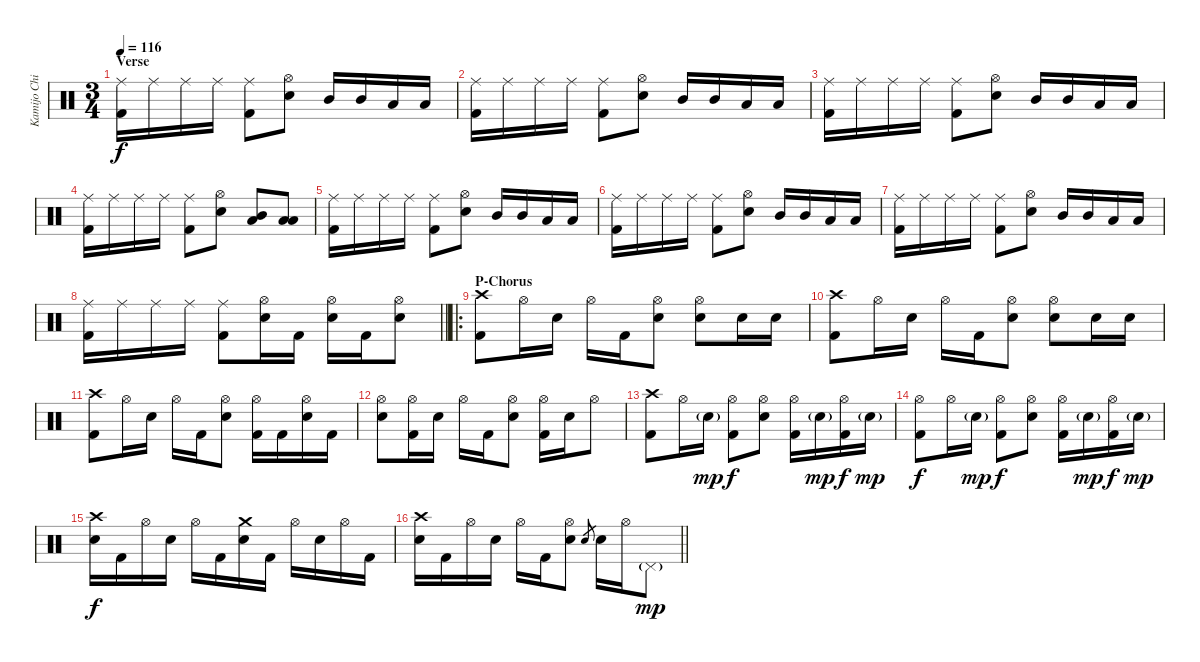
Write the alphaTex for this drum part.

\track ("Kamijo Chihiro" "Kamijo Chi") {instrument percussion}
\staff {score}
\articulation defaults
\ts (3 4)
\section ("" "Verse")
\tempo 116
\clef neutral
\ks c
("Ride (middle)" "Kick (hit) 2").16{dy f} "Ride (middle)".16 "Ride (middle)".16 "Ride (middle)".16 ("Ride (middle)" "Kick (hit) 2").8 ("Hi-Hat (open)" "Snare (hit) 2").8 "Mid Tom (hit)".16 "Mid Tom (hit)".16 "Low Tom (hit)".16 "Low Tom (hit)".16 |
("Ride (middle)" "Kick (hit) 2").16 "Ride (middle)".16 "Ride (middle)".16 "Ride (middle)".16 ("Ride (middle)" "Kick (hit) 2").8 ("Hi-Hat (open)" "Snare (hit) 2").8 "Mid Tom (hit)".16 "Mid Tom (hit)".16 "Low Tom (hit)".16 "Low Tom (hit)".16 |
("Ride (middle)" "Kick (hit) 2").16 "Ride (middle)".16 "Ride (middle)".16 "Ride (middle)".16 ("Ride (middle)" "Kick (hit) 2").8 ("Hi-Hat (open)" "Snare (hit) 2").8 "Mid Tom (hit)".16 "Mid Tom (hit)".16 "Low Tom (hit)".16 "Low Tom (hit)".16 |
("Ride (middle)" "Kick (hit) 2").16 "Ride (middle)".16 "Ride (middle)".16 "Ride (middle)".16 ("Ride (middle)" "Kick (hit) 2").8 ("Hi-Hat (open)" "Snare (hit) 2").8 ("Mid Tom (hit)" "Low Tom (hit)").8 ("Low Tom (hit)" "Low Floor Tom (hit)").8 |
("Ride (middle)" "Kick (hit) 2").16 "Ride (middle)".16 "Ride (middle)".16 "Ride (middle)".16 ("Ride (middle)" "Kick (hit) 2").8 ("Hi-Hat (open)" "Snare (hit) 2").8 "Mid Tom (hit)".16 "Mid Tom (hit)".16 "Low Tom (hit)".16 "Low Tom (hit)".16 |
("Ride (middle)" "Kick (hit) 2").16 "Ride (middle)".16 "Ride (middle)".16 "Ride (middle)".16 ("Ride (middle)" "Kick (hit) 2").8 ("Hi-Hat (open)" "Snare (hit) 2").8 "Mid Tom (hit)".16 "Mid Tom (hit)".16 "Low Tom (hit)".16 "Low Tom (hit)".16 |
("Ride (middle)" "Kick (hit) 2").16 "Ride (middle)".16 "Ride (middle)".16 "Ride (middle)".16 ("Ride (middle)" "Kick (hit) 2").8 ("Hi-Hat (open)" "Snare (hit) 2").8 "Mid Tom (hit)".16 "Mid Tom (hit)".16 "Low Tom (hit)".16 "Low Tom (hit)".16 |
\barLineRight lightlight
("Ride (middle)" "Kick (hit) 2").16 "Ride (middle)".16 "Ride (middle)".16 "Ride (middle)".16 ("Ride (middle)" "Kick (hit) 2").8 ("Hi-Hat (open)" "Snare (hit) 2").16 "Kick (hit) 2".16 ("Hi-Hat (open)" "Snare (hit) 2").16 "Kick (hit) 2".16 ("Hi-Hat (open)" "Snare (hit) 2").8 |
\ro
\section ("" "P-Chorus")
("Crash high (hit)" "Kick (hit) 2").8 "Hi-Hat (open)".16 "Snare (hit) 2".16 "Hi-Hat (open)".16 "Kick (hit) 2".16 ("Hi-Hat (open)" "Snare (hit) 2").8 ("Hi-Hat (open)" "Snare (hit) 2").8 "Snare (hit) 2".16 "Snare (hit) 2".16 |
("Crash high (hit)" "Kick (hit) 2").8 "Hi-Hat (open)".16 "Snare (hit) 2".16 "Hi-Hat (open)".16 "Kick (hit) 2".16 ("Hi-Hat (open)" "Snare (hit) 2").8 ("Hi-Hat (open)" "Snare (hit) 2").8 "Snare (hit) 2".16 "Snare (hit) 2".16 |
("Crash high (hit)" "Kick (hit) 2").8 "Hi-Hat (open)".16 "Snare (hit) 2".16 "Hi-Hat (open)".16 "Kick (hit) 2".16 ("Hi-Hat (open)" "Snare (hit) 2").8 ("Hi-Hat (open)" "Kick (hit) 2").16 "Kick (hit) 2".16 ("Hi-Hat (open)" "Snare (hit) 2").16 "Kick (hit) 2".16 |
("Hi-Hat (open)" "Snare (hit) 2").8 ("Hi-Hat (open)" "Kick (hit) 2").16 "Snare (hit) 2".16 "Hi-Hat (open)".16 "Kick (hit) 2".16 ("Hi-Hat (open)" "Snare (hit) 2").8 ("Hi-Hat (open)" "Kick (hit) 2").16 "Snare (hit) 2".16 "Hi-Hat (open)".8 |
("Crash high (hit)" "Kick (hit) 2").8 "Hi-Hat (open)".16 "Snare (hit) 2"{g}.16{dy mp} ("Hi-Hat (open)" "Kick (hit) 2").8{dy f} ("Hi-Hat (open)" "Snare (hit) 2").8 ("Hi-Hat (open)" "Kick (hit) 2").16 "Snare (hit) 2"{g}.16{dy mp} ("Hi-Hat (open)" "Kick (hit) 2").16{dy f} "Snare (hit) 2"{g}.16{dy mp} |
("Hi-Hat (open)" "Kick (hit) 2").8{dy f} "Hi-Hat (open)".16 "Snare (hit) 2"{g}.16{dy mp} ("Hi-Hat (open)" "Kick (hit) 2").8{dy f} ("Hi-Hat (open)" "Snare (hit) 2").8 ("Hi-Hat (open)" "Kick (hit) 2").16 "Snare (hit) 2"{g}.16{dy mp} ("Hi-Hat (open)" "Kick (hit) 2").16{dy f} "Snare (hit) 2"{g}.16{dy mp} |
("Crash high (hit)" "Snare (hit) 2").16{dy f} "Kick (hit) 2".16 "Hi-Hat (open)".16 "Snare (hit) 2".16 "Hi-Hat (open)".16 "Kick (hit) 2".16 ("Crash medium (hit)" "Snare (hit) 2").16 "Kick (hit) 2".16 "Hi-Hat (open)".16 "Snare (hit) 2".16 "Hi-Hat (open)".16 "Kick (hit) 2".16 |
\barLineRight lightlight
("Crash high (hit)" "Snare (hit) 2").16 "Kick (hit) 2".16 "Hi-Hat (open)".16 "Snare (hit) 2".16 "Hi-Hat (open)".16 "Kick (hit) 2".16 ("Hi-Hat (open)" "Snare (hit) 2").8 "Snare (hit) 2".8{gr} "Snare (hit) 2".16 "Hi-Hat (open)".16 "Pedal Hi-Hat (hit)"{g}.8{dy mp}
